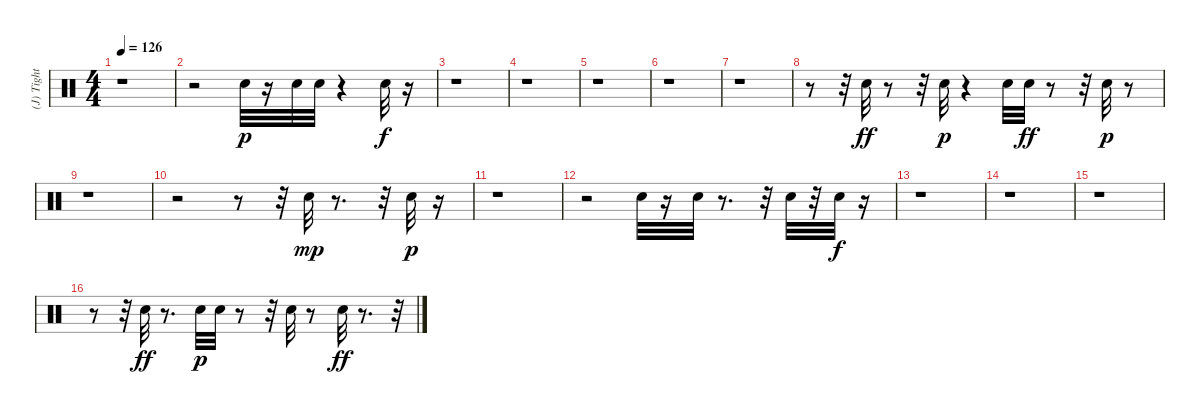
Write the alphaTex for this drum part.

\track ("(J) Tight Snare" "(J) Tight ") {instrument percussion}
\staff {score}
\articulation defaults
\ts (4 4)
\tempo 126
\clef neutral
\ks c
r.1{dy f} |
r.2 "Electric Snare (hit)".32{dy p} r.16 "Electric Snare (hit)".32 "Electric Snare (hit)".32 r.4 "Electric Snare (hit)".32{dy f} r.16 |
r.1 |
r.1 |
r.1 |
r.1 |
r.1 |
r.8 r.32 "Electric Snare (hit)".32{dy ff} r.8 r.32 "Electric Snare (hit)".32{dy p} r.4 "Electric Snare (hit)".32 "Electric Snare (hit)".32{dy ff} r.8 r.32 "Electric Snare (hit)".32{dy p} r.8 |
r.1 |
r.2 r.8 r.32 "Electric Snare (hit)".32{dy mp} r.8{d} r.32 "Electric Snare (hit)".32{dy p} r.16 |
r.1 |
r.2 "Electric Snare (hit)".32 r.16 "Electric Snare (hit)".32 r.8{d} r.32 "Electric Snare (hit)".32 r.32 "Electric Snare (hit)".32{dy f} r.16 |
r.1 |
r.1 |
r.1 |
r.8 r.32 "Electric Snare (hit)".32{dy ff} r.8{d} "Electric Snare (hit)".32{dy p} "Electric Snare (hit)".32 r.8 r.32 "Electric Snare (hit)".32 r.8 "Electric Snare (hit)".32{dy ff} r.8{d} r.32
